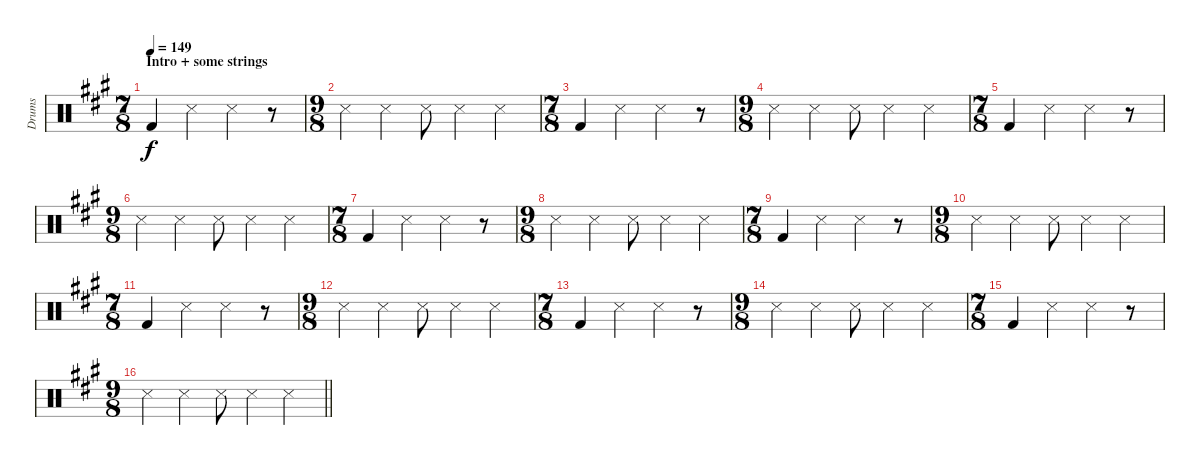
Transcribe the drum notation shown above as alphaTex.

\track ("Drums" "Drums") {instrument percussion}
\staff {score}
\articulation defaults
\ts (7 8)
\section ("" "Intro + some strings")
\tempo 149
\clef neutral
\ks a "Kick (hit) 2".4{dy f} "Snare (side stick) 3".4 "Snare (side stick) 3".4
r.8 |
\ts (9 8)
"Snare (side stick) 3".4 "Snare (side stick) 3".4 "Snare (side stick) 3".8 "Snare (side stick) 3".4 "Snare (side stick) 3".4 |
\ts (7 8)
"Kick (hit) 2".4 "Snare (side stick) 3".4 "Snare (side stick) 3".4 r.8 |
\ts (9 8)
"Snare (side stick) 3".4 "Snare (side stick) 3".4 "Snare (side stick) 3".8 "Snare (side stick) 3".4 "Snare (side stick) 3".4 |
\ts (7 8)
"Kick (hit) 2".4 "Snare (side stick) 3".4 "Snare (side stick) 3".4 r.8 |
\ts (9 8)
"Snare (side stick) 3".4 "Snare (side stick) 3".4 "Snare (side stick) 3".8 "Snare (side stick) 3".4 "Snare (side stick) 3".4 |
\ts (7 8)
"Kick (hit) 2".4 "Snare (side stick) 3".4 "Snare (side stick) 3".4 r.8 |
\ts (9 8)
"Snare (side stick) 3".4 "Snare (side stick) 3".4 "Snare (side stick) 3".8 "Snare (side stick) 3".4 "Snare (side stick) 3".4 |
\ts (7 8)
"Kick (hit) 2".4 "Snare (side stick) 3".4 "Snare (side stick) 3".4 r.8 |
\ts (9 8)
"Snare (side stick) 3".4 "Snare (side stick) 3".4 "Snare (side stick) 3".8 "Snare (side stick) 3".4 "Snare (side stick) 3".4 |
\ts (7 8)
"Kick (hit) 2".4 "Snare (side stick) 3".4 "Snare (side stick) 3".4 r.8 |
\ts (9 8)
"Snare (side stick) 3".4 "Snare (side stick) 3".4 "Snare (side stick) 3".8 "Snare (side stick) 3".4 "Snare (side stick) 3".4 |
\ts (7 8)
"Kick (hit) 2".4 "Snare (side stick) 3".4 "Snare (side stick) 3".4 r.8 |
\ts (9 8)
"Snare (side stick) 3".4 "Snare (side stick) 3".4 "Snare (side stick) 3".8 "Snare (side stick) 3".4 "Snare (side stick) 3".4 |
\ts (7 8)
"Kick (hit) 2".4 "Snare (side stick) 3".4 "Snare (side stick) 3".4 r.8 |
\ts (9 8)
\barLineRight lightlight "Snare (side stick) 3".4 "Snare (side stick) 3".4 "Snare (side stick) 3".8 "Snare (side stick) 3".4 "Snare (side stick) 3".4
